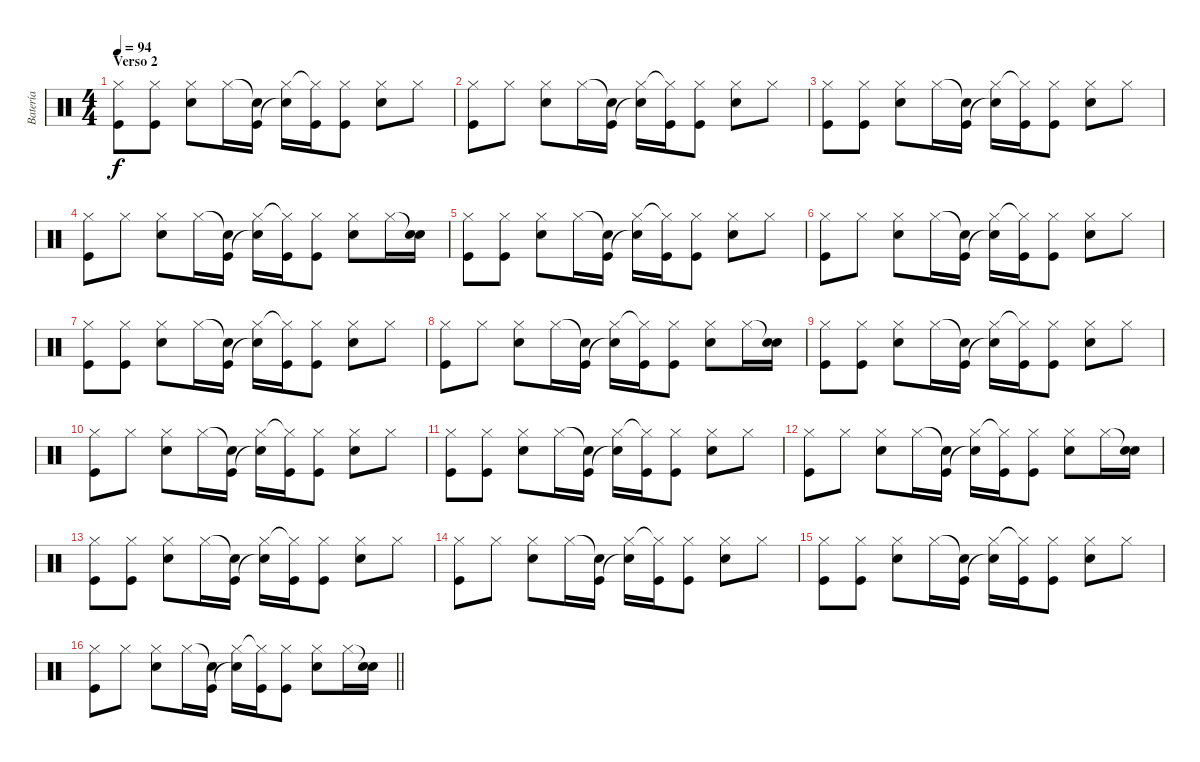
\track ("Batería" "Batería") {instrument percussion}
\staff {score}
\articulation defaults
\ts (4 4)
\section ("" "Verso 2")
\tempo 94
\clef neutral
\ks c
("Hi-Hat (closed)" "Kick (hit)").8{dy f} ("Hi-Hat (closed)" "Kick (hit)").8 ("Hi-Hat (closed)" "Snare (hit) 2").8 "Hi-Hat (closed)".16 ("Snare (hit)"{t} "Kick (hit)").16 ("Hi-Hat (closed)" "Snare (hit)"{t}).16 ("Hi-Hat (closed)"{t} "Kick (hit)").16 ("Hi-Hat (closed)" "Kick (hit)").8 ("Hi-Hat (closed)" "Snare (hit) 2").8 "Hi-Hat (closed)".8 |
("Hi-Hat (closed)" "Kick (hit)").8 "Hi-Hat (closed)".8 ("Hi-Hat (closed)" "Snare (hit) 2").8 "Hi-Hat (closed)".16 ("Snare (hit)"{t} "Kick (hit)").16 ("Hi-Hat (closed)" "Snare (hit)"{t}).16 ("Hi-Hat (closed)"{t} "Kick (hit)").16 ("Hi-Hat (closed)" "Kick (hit)").8 ("Hi-Hat (closed)" "Snare (hit) 2").8 "Hi-Hat (closed)".8 |
("Hi-Hat (closed)" "Kick (hit)").8 ("Hi-Hat (closed)" "Kick (hit)").8 ("Hi-Hat (closed)" "Snare (hit) 2").8 "Hi-Hat (closed)".16 ("Snare (hit)"{t} "Kick (hit)").16 ("Hi-Hat (closed)" "Snare (hit)"{t}).16 ("Hi-Hat (closed)"{t} "Kick (hit)").16 ("Hi-Hat (closed)" "Kick (hit)").8 ("Hi-Hat (closed)" "Snare (hit) 2").8 "Hi-Hat (closed)".8 |
("Hi-Hat (closed)" "Kick (hit)").8 "Hi-Hat (closed)".8 ("Hi-Hat (closed)" "Snare (hit) 2").8 "Hi-Hat (closed)".16 ("Snare (hit)"{t} "Kick (hit)").16 ("Hi-Hat (closed)" "Snare (hit)"{t}).16 ("Hi-Hat (closed)"{t} "Kick (hit)").16 ("Hi-Hat (closed)" "Kick (hit)").8 ("Hi-Hat (closed)" "Snare (hit) 2").8 "Hi-Hat (closed)".16 ("Snare (hit)"{t} "Snare (hit) 2").16 |
("Hi-Hat (closed)" "Kick (hit)").8 ("Hi-Hat (closed)" "Kick (hit)").8 ("Hi-Hat (closed)" "Snare (hit) 2").8 "Hi-Hat (closed)".16 ("Snare (hit)"{t} "Kick (hit)").16 ("Hi-Hat (closed)" "Snare (hit)"{t}).16 ("Hi-Hat (closed)"{t} "Kick (hit)").16 ("Hi-Hat (closed)" "Kick (hit)").8 ("Hi-Hat (closed)" "Snare (hit) 2").8 "Hi-Hat (closed)".8 |
("Hi-Hat (closed)" "Kick (hit)").8 "Hi-Hat (closed)".8 ("Hi-Hat (closed)" "Snare (hit) 2").8 "Hi-Hat (closed)".16 ("Snare (hit)"{t} "Kick (hit)").16 ("Hi-Hat (closed)" "Snare (hit)"{t}).16 ("Hi-Hat (closed)"{t} "Kick (hit)").16 ("Hi-Hat (closed)" "Kick (hit)").8 ("Hi-Hat (closed)" "Snare (hit) 2").8 "Hi-Hat (closed)".8 |
("Hi-Hat (closed)" "Kick (hit)").8 ("Hi-Hat (closed)" "Kick (hit)").8 ("Hi-Hat (closed)" "Snare (hit) 2").8 "Hi-Hat (closed)".16 ("Snare (hit)"{t} "Kick (hit)").16 ("Hi-Hat (closed)" "Snare (hit)"{t}).16 ("Hi-Hat (closed)"{t} "Kick (hit)").16 ("Hi-Hat (closed)" "Kick (hit)").8 ("Hi-Hat (closed)" "Snare (hit) 2").8 "Hi-Hat (closed)".8 |
("Hi-Hat (closed)" "Kick (hit)").8 "Hi-Hat (closed)".8 ("Hi-Hat (closed)" "Snare (hit) 2").8 "Hi-Hat (closed)".16 ("Snare (hit)"{t} "Kick (hit)").16 ("Hi-Hat (closed)" "Snare (hit)"{t}).16 ("Hi-Hat (closed)"{t} "Kick (hit)").16 ("Hi-Hat (closed)" "Kick (hit)").8 ("Hi-Hat (closed)" "Snare (hit) 2").8 "Hi-Hat (closed)".16 ("Snare (hit)"{t} "Snare (hit) 2").16 |
("Hi-Hat (closed)" "Kick (hit)").8 ("Hi-Hat (closed)" "Kick (hit)").8 ("Hi-Hat (closed)" "Snare (hit) 2").8 "Hi-Hat (closed)".16 ("Snare (hit)"{t} "Kick (hit)").16 ("Hi-Hat (closed)" "Snare (hit)"{t}).16 ("Hi-Hat (closed)"{t} "Kick (hit)").16 ("Hi-Hat (closed)" "Kick (hit)").8 ("Hi-Hat (closed)" "Snare (hit) 2").8 "Hi-Hat (closed)".8 |
("Hi-Hat (closed)" "Kick (hit)").8 "Hi-Hat (closed)".8 ("Hi-Hat (closed)" "Snare (hit) 2").8 "Hi-Hat (closed)".16 ("Snare (hit)"{t} "Kick (hit)").16 ("Hi-Hat (closed)" "Snare (hit)"{t}).16 ("Hi-Hat (closed)"{t} "Kick (hit)").16 ("Hi-Hat (closed)" "Kick (hit)").8 ("Hi-Hat (closed)" "Snare (hit) 2").8 "Hi-Hat (closed)".8 |
("Hi-Hat (closed)" "Kick (hit)").8 ("Hi-Hat (closed)" "Kick (hit)").8 ("Hi-Hat (closed)" "Snare (hit) 2").8 "Hi-Hat (closed)".16 ("Snare (hit)"{t} "Kick (hit)").16 ("Hi-Hat (closed)" "Snare (hit)"{t}).16 ("Hi-Hat (closed)"{t} "Kick (hit)").16 ("Hi-Hat (closed)" "Kick (hit)").8 ("Hi-Hat (closed)" "Snare (hit) 2").8 "Hi-Hat (closed)".8 |
("Hi-Hat (closed)" "Kick (hit)").8 "Hi-Hat (closed)".8 ("Hi-Hat (closed)" "Snare (hit) 2").8 "Hi-Hat (closed)".16 ("Snare (hit)"{t} "Kick (hit)").16 ("Hi-Hat (closed)" "Snare (hit)"{t}).16 ("Hi-Hat (closed)"{t} "Kick (hit)").16 ("Hi-Hat (closed)" "Kick (hit)").8 ("Hi-Hat (closed)" "Snare (hit) 2").8 "Hi-Hat (closed)".16 ("Snare (hit)"{t} "Snare (hit) 2").16 |
("Hi-Hat (closed)" "Kick (hit)").8 ("Hi-Hat (closed)" "Kick (hit)").8 ("Hi-Hat (closed)" "Snare (hit) 2").8 "Hi-Hat (closed)".16 ("Snare (hit)"{t} "Kick (hit)").16 ("Hi-Hat (closed)" "Snare (hit)"{t}).16 ("Hi-Hat (closed)"{t} "Kick (hit)").16 ("Hi-Hat (closed)" "Kick (hit)").8 ("Hi-Hat (closed)" "Snare (hit) 2").8 "Hi-Hat (closed)".8 |
("Hi-Hat (closed)" "Kick (hit)").8 "Hi-Hat (closed)".8 ("Hi-Hat (closed)" "Snare (hit) 2").8 "Hi-Hat (closed)".16 ("Snare (hit)"{t} "Kick (hit)").16 ("Hi-Hat (closed)" "Snare (hit)"{t}).16 ("Hi-Hat (closed)"{t} "Kick (hit)").16 ("Hi-Hat (closed)" "Kick (hit)").8 ("Hi-Hat (closed)" "Snare (hit) 2").8 "Hi-Hat (closed)".8 |
("Hi-Hat (closed)" "Kick (hit)").8 ("Hi-Hat (closed)" "Kick (hit)").8 ("Hi-Hat (closed)" "Snare (hit) 2").8 "Hi-Hat (closed)".16 ("Snare (hit)"{t} "Kick (hit)").16 ("Hi-Hat (closed)" "Snare (hit)"{t}).16 ("Hi-Hat (closed)"{t} "Kick (hit)").16 ("Hi-Hat (closed)" "Kick (hit)").8 ("Hi-Hat (closed)" "Snare (hit) 2").8 "Hi-Hat (closed)".8 |
\barLineRight lightlight
("Hi-Hat (closed)" "Kick (hit)").8 "Hi-Hat (closed)".8 ("Hi-Hat (closed)" "Snare (hit) 2").8 "Hi-Hat (closed)".16 ("Snare (hit)"{t} "Kick (hit)").16 ("Hi-Hat (closed)" "Snare (hit)"{t}).16 ("Hi-Hat (closed)"{t} "Kick (hit)").16 ("Hi-Hat (closed)" "Kick (hit)").8 ("Hi-Hat (closed)" "Snare (hit) 2").8 "Hi-Hat (closed)".16 ("Snare (hit)"{t} "Snare (hit) 2").16
